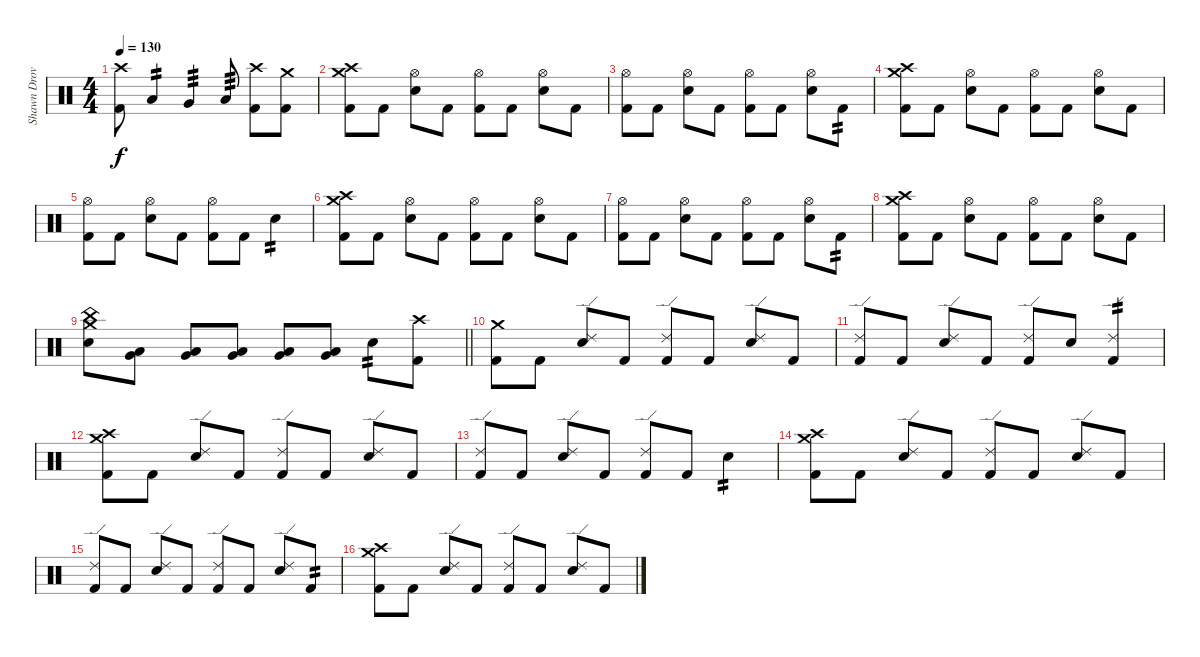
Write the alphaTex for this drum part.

\track ("Shawn Drover" "Shawn Drov") {instrument percussion}
\staff {score}
\articulation defaults
\ts (4 4)
\tempo 130
\clef neutral
\ks c
("Crash high (hit)" "Kick (hit) 2").8{dy f} "Low Tom (hit)".4{tp 2} "Very Low Tom (hit)".4{tp 3} "Low Floor Tom (hit)".8{tp 3} ("Crash high (hit)" "Kick (hit) 2").8 ("Crash medium (hit)" "Kick (hit) 2").8 |
("Crash high (hit)" "Crash medium (hit)" "Kick (hit) 2").8 "Kick (hit) 2".8 ("Hi-Hat (open)" "Snare (hit) 2").8 "Kick (hit) 2".8 ("Hi-Hat (open)" "Kick (hit) 2").8 "Kick (hit) 2".8 ("Hi-Hat (open)" "Snare (hit) 2").8 "Kick (hit) 2".8 |
("Hi-Hat (open)" "Kick (hit) 2").8 "Kick (hit) 2".8 ("Hi-Hat (open)" "Snare (hit) 2").8 "Kick (hit) 2".8 ("Hi-Hat (open)" "Kick (hit) 2").8 "Kick (hit) 2".8 ("Hi-Hat (open)" "Snare (hit) 2").8 "Kick (hit) 2".8{tp 2} |
("Crash high (hit)" "Crash medium (hit)" "Kick (hit) 2").8 "Kick (hit) 2".8 ("Hi-Hat (open)" "Snare (hit) 2").8 "Kick (hit) 2".8 ("Hi-Hat (open)" "Kick (hit) 2").8 "Kick (hit) 2".8 ("Hi-Hat (open)" "Snare (hit) 2").8 "Kick (hit) 2".8 |
("Hi-Hat (open)" "Kick (hit) 2").8 "Kick (hit) 2".8 ("Hi-Hat (open)" "Snare (hit) 2").8 "Kick (hit) 2".8 ("Hi-Hat (open)" "Kick (hit) 2").8 "Kick (hit) 2".8 "Snare (hit) 2".4{tp 2} |
("Crash high (hit)" "Crash medium (hit)" "Kick (hit) 2").8 "Kick (hit) 2".8 ("Hi-Hat (open)" "Snare (hit) 2").8 "Kick (hit) 2".8 ("Hi-Hat (open)" "Kick (hit) 2").8 "Kick (hit) 2".8 ("Hi-Hat (open)" "Snare (hit) 2").8 "Kick (hit) 2".8 |
("Hi-Hat (open)" "Kick (hit) 2").8 "Kick (hit) 2".8 ("Hi-Hat (open)" "Snare (hit) 2").8 "Kick (hit) 2".8 ("Hi-Hat (open)" "Kick (hit) 2").8 "Kick (hit) 2".8 ("Hi-Hat (open)" "Snare (hit) 2").8 "Kick (hit) 2".8{tp 2} |
("Crash high (hit)" "Crash medium (hit)" "Kick (hit) 2").8 "Kick (hit) 2".8 ("Hi-Hat (open)" "Snare (hit) 2").8 "Kick (hit) 2".8 ("Hi-Hat (open)" "Kick (hit) 2").8 "Kick (hit) 2".8 ("Hi-Hat (open)" "Snare (hit) 2").8 "Kick (hit) 2".8 |
\barLineRight lightlight
("China (hit)" "Snare (hit) 2" "Crash medium (hit)").8 ("Low Floor Tom (hit)" "Very Low Tom (hit)").8 ("Low Floor Tom (hit)" "Very Low Tom (hit)").8 ("Low Floor Tom (hit)" "Very Low Tom (hit)").8 ("Low Tom (hit)" "Very Low Tom (hit)").8 ("Low Tom (hit)" "Very Low Tom (hit)").8 "Snare (hit) 2".8{tp 2} ("Crash high (hit)" "Kick (hit) 2").8 |
("Crash medium (hit)" "Kick (hit) 2").8 "Kick (hit) 2".8 ("Ride (edge) 2" "Snare (hit) 2").8 "Kick (hit) 2".8 ("Ride (edge) 2" "Kick (hit) 2").8 "Kick (hit) 2".8 ("Ride (edge) 2" "Snare (hit) 2").8 "Kick (hit) 2".8 |
("Ride (edge) 2" "Kick (hit) 2").8 "Kick (hit) 2".8 ("Ride (edge) 2" "Snare (hit) 2").8 "Kick (hit) 2".8 ("Ride (edge) 2" "Kick (hit) 2").8 "Snare (hit) 2".8 ("Ride (edge) 2" "Kick (hit) 2").4{tp 2} |
("Crash high (hit)" "Crash medium (hit)" "Kick (hit) 2").8 "Kick (hit) 2".8 ("Ride (edge) 2" "Snare (hit) 2").8 "Kick (hit) 2".8 ("Ride (edge) 2" "Kick (hit) 2").8 "Kick (hit) 2".8 ("Ride (edge) 2" "Snare (hit) 2").8 "Kick (hit) 2".8 |
("Ride (edge) 2" "Kick (hit) 2").8 "Kick (hit) 2".8 ("Ride (edge) 2" "Snare (hit) 2").8 "Kick (hit) 2".8 ("Ride (edge) 2" "Kick (hit) 2").8 "Kick (hit) 2".8 "Snare (hit) 2".4{tp 2} |
("Crash high (hit)" "Crash medium (hit)" "Kick (hit) 2").8 "Kick (hit) 2".8 ("Ride (edge) 2" "Snare (hit) 2").8 "Kick (hit) 2".8 ("Ride (edge) 2" "Kick (hit) 2").8 "Kick (hit) 2".8 ("Ride (edge) 2" "Snare (hit) 2").8 "Kick (hit) 2".8 |
("Ride (edge) 2" "Kick (hit) 2").8 "Kick (hit) 2".8 ("Ride (edge) 2" "Snare (hit) 2").8 "Kick (hit) 2".8 ("Ride (edge) 2" "Kick (hit) 2").8 "Kick (hit) 2".8 ("Ride (edge) 2" "Snare (hit) 2").8 "Kick (hit) 2".8{tp 2} |
("Crash high (hit)" "Crash medium (hit)" "Kick (hit) 2").8 "Kick (hit) 2".8 ("Ride (edge) 2" "Snare (hit) 2").8 "Kick (hit) 2".8 ("Ride (edge) 2" "Kick (hit) 2").8 "Kick (hit) 2".8 ("Ride (edge) 2" "Snare (hit) 2").8 "Kick (hit) 2".8
